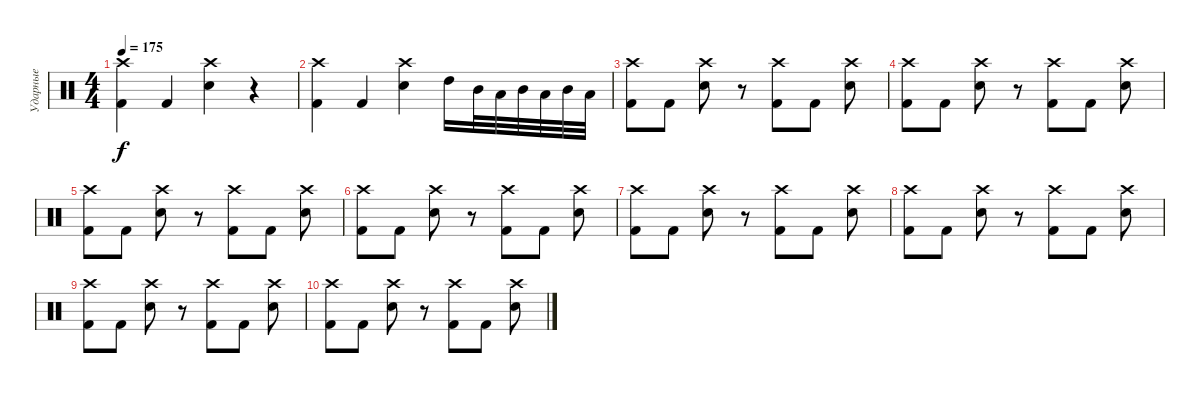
\track ("Ударные" "Ударные") {instrument percussion}
\staff {score}
\articulation defaults
\ts (4 4)
\tempo 175
\clef neutral
\ks c
("Kick (hit) 2" "Crash high (hit)").4{dy f} "Kick (hit) 2".4 ("Electric Snare (hit)" "Crash high (hit)").4 r.4 |
("Kick (hit) 2" "Crash high (hit)").4 "Kick (hit) 2".4 ("Electric Snare (hit)" "Crash high (hit)").4 "High Tom (hit)".16 "Mid Tom (hit)".32 "Low Tom (hit)".32 "Mid Tom (hit)".32 "Low Tom (hit)".32 "Mid Tom (hit)".32 "Low Tom (hit)".32 |
("Kick (hit) 2" "Crash high (hit)").8 "Kick (hit) 2".8 ("Electric Snare (hit)" "Crash high (hit)").8 r.8 ("Kick (hit) 2" "Crash high (hit)").8 "Kick (hit) 2".8 ("Electric Snare (hit)" "Crash high (hit)").8 |
("Kick (hit) 2" "Crash high (hit)").8 "Kick (hit) 2".8 ("Electric Snare (hit)" "Crash high (hit)").8 r.8 ("Kick (hit) 2" "Crash high (hit)").8 "Kick (hit) 2".8 ("Electric Snare (hit)" "Crash high (hit)").8 |
("Kick (hit) 2" "Crash high (hit)").8 "Kick (hit) 2".8 ("Electric Snare (hit)" "Crash high (hit)").8 r.8 ("Kick (hit) 2" "Crash high (hit)").8 "Kick (hit) 2".8 ("Electric Snare (hit)" "Crash high (hit)").8 |
("Kick (hit) 2" "Crash high (hit)").8 "Kick (hit) 2".8 ("Electric Snare (hit)" "Crash high (hit)").8 r.8 ("Kick (hit) 2" "Crash high (hit)").8 "Kick (hit) 2".8 ("Electric Snare (hit)" "Crash high (hit)").8 |
("Kick (hit) 2" "Crash high (hit)").8 "Kick (hit) 2".8 ("Electric Snare (hit)" "Crash high (hit)").8 r.8 ("Kick (hit) 2" "Crash high (hit)").8 "Kick (hit) 2".8 ("Electric Snare (hit)" "Crash high (hit)").8 |
("Kick (hit) 2" "Crash high (hit)").8 "Kick (hit) 2".8 ("Electric Snare (hit)" "Crash high (hit)").8 r.8 ("Kick (hit) 2" "Crash high (hit)").8 "Kick (hit) 2".8 ("Electric Snare (hit)" "Crash high (hit)").8 |
("Kick (hit) 2" "Crash high (hit)").8 "Kick (hit) 2".8 ("Electric Snare (hit)" "Crash high (hit)").8 r.8 ("Kick (hit) 2" "Crash high (hit)").8 "Kick (hit) 2".8 ("Electric Snare (hit)" "Crash high (hit)").8 |
("Kick (hit) 2" "Crash high (hit)").8 "Kick (hit) 2".8 ("Electric Snare (hit)" "Crash high (hit)").8 r.8 ("Kick (hit) 2" "Crash high (hit)").8 "Kick (hit) 2".8 ("Electric Snare (hit)" "Crash high (hit)").8
